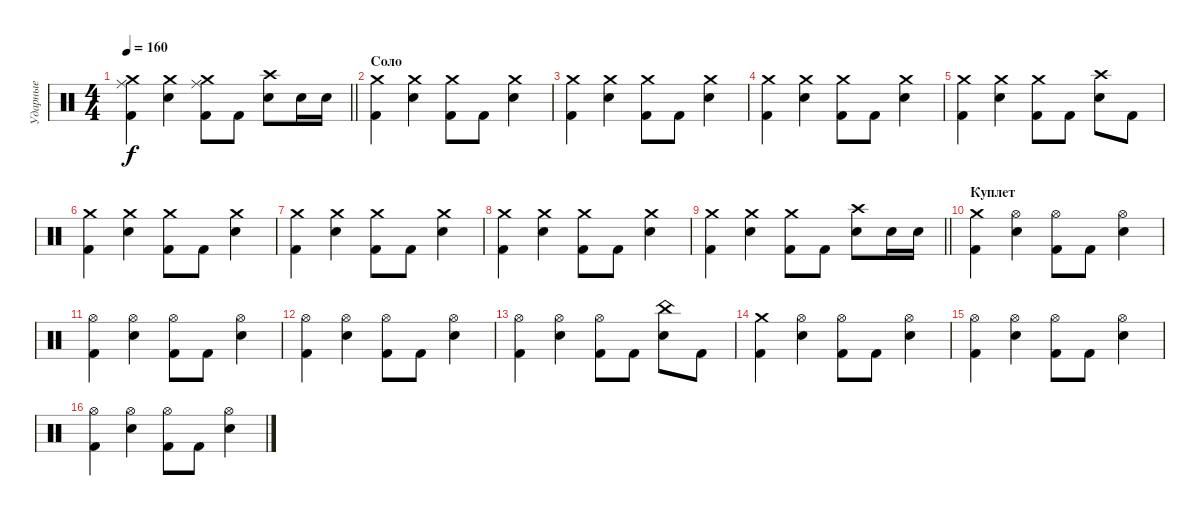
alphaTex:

\track ("Ударные" "Ударные") {instrument percussion}
\staff {score}
\articulation defaults
\ts (4 4)
\tempo 160
\clef neutral
\barLineRight lightlight
\ks c
("Kick (hit) 2" "Crash medium (hit)" "Ride (middle)").4{dy f} ("Electric Snare (hit)" "Crash medium (hit)").4 ("Kick (hit) 2" "Crash medium (hit)" "Ride (middle)").8 "Kick (hit) 2".8 ("Electric Snare (hit)" "Crash high (hit)").8 "Electric Snare (hit)".16 "Electric Snare (hit)".16 |
\section ("" "Соло")
("Kick (hit) 2" "Crash medium (hit)").4 ("Electric Snare (hit)" "Crash medium (hit)").4 ("Kick (hit) 2" "Crash medium (hit)").8 "Kick (hit) 2".8 ("Electric Snare (hit)" "Crash medium (hit)").4 |
("Kick (hit) 2" "Crash medium (hit)").4 ("Electric Snare (hit)" "Crash medium (hit)").4 ("Kick (hit) 2" "Crash medium (hit)").8 "Kick (hit) 2".8 ("Electric Snare (hit)" "Crash medium (hit)").4 |
("Kick (hit) 2" "Crash medium (hit)").4 ("Electric Snare (hit)" "Crash medium (hit)").4 ("Kick (hit) 2" "Crash medium (hit)").8 "Kick (hit) 2".8 ("Electric Snare (hit)" "Crash medium (hit)").4 |
("Kick (hit) 2" "Crash medium (hit)").4 ("Electric Snare (hit)" "Crash medium (hit)").4 ("Kick (hit) 2" "Crash medium (hit)").8 "Kick (hit) 2".8 ("Electric Snare (hit)" "Crash high (hit)").8 "Kick (hit) 2".8 |
("Kick (hit) 2" "Crash medium (hit)").4 ("Electric Snare (hit)" "Crash medium (hit)").4 ("Kick (hit) 2" "Crash medium (hit)").8 "Kick (hit) 2".8 ("Electric Snare (hit)" "Crash medium (hit)").4 |
("Kick (hit) 2" "Crash medium (hit)").4 ("Electric Snare (hit)" "Crash medium (hit)").4 ("Kick (hit) 2" "Crash medium (hit)").8 "Kick (hit) 2".8 ("Electric Snare (hit)" "Crash medium (hit)").4 |
("Kick (hit) 2" "Crash medium (hit)").4 ("Electric Snare (hit)" "Crash medium (hit)").4 ("Kick (hit) 2" "Crash medium (hit)").8 "Kick (hit) 2".8 ("Electric Snare (hit)" "Crash medium (hit)").4 |
\barLineRight lightlight
("Kick (hit) 2" "Crash medium (hit)").4 ("Electric Snare (hit)" "Crash medium (hit)").4 ("Kick (hit) 2" "Crash medium (hit)").8 "Kick (hit) 2".8 ("Electric Snare (hit)" "Crash high (hit)").8 "Electric Snare (hit)".16 "Electric Snare (hit)".16 |
\section ("" "Куплет")
("Kick (hit) 2" "Crash medium (hit)").4 ("Electric Snare (hit)" "Hi-Hat (open)").4 ("Kick (hit) 2" "Hi-Hat (open)").8 "Kick (hit) 2".8 ("Electric Snare (hit)" "Hi-Hat (open)").4 |
("Kick (hit) 2" "Hi-Hat (open)").4 ("Electric Snare (hit)" "Hi-Hat (open)").4 ("Kick (hit) 2" "Hi-Hat (open)").8 "Kick (hit) 2".8 ("Electric Snare (hit)" "Hi-Hat (open)").4 |
("Kick (hit) 2" "Hi-Hat (open)").4 ("Electric Snare (hit)" "Hi-Hat (open)").4 ("Kick (hit) 2" "Hi-Hat (open)").8 "Kick (hit) 2".8 ("Electric Snare (hit)" "Hi-Hat (open)").4 |
("Kick (hit) 2" "Hi-Hat (open)").4 ("Electric Snare (hit)" "Hi-Hat (open)").4 ("Kick (hit) 2" "Hi-Hat (open)").8 "Kick (hit) 2".8 ("Electric Snare (hit)" "China (hit)").8 "Kick (hit) 2".8 |
("Kick (hit) 2" "Crash medium (hit)").4 ("Electric Snare (hit)" "Hi-Hat (open)").4 ("Kick (hit) 2" "Hi-Hat (open)").8 "Kick (hit) 2".8 ("Electric Snare (hit)" "Hi-Hat (open)").4 |
("Kick (hit) 2" "Hi-Hat (open)").4 ("Electric Snare (hit)" "Hi-Hat (open)").4 ("Kick (hit) 2" "Hi-Hat (open)").8 "Kick (hit) 2".8 ("Electric Snare (hit)" "Hi-Hat (open)").4 |
("Kick (hit) 2" "Hi-Hat (open)").4 ("Electric Snare (hit)" "Hi-Hat (open)").4 ("Kick (hit) 2" "Hi-Hat (open)").8 "Kick (hit) 2".8 ("Electric Snare (hit)" "Hi-Hat (open)").4
